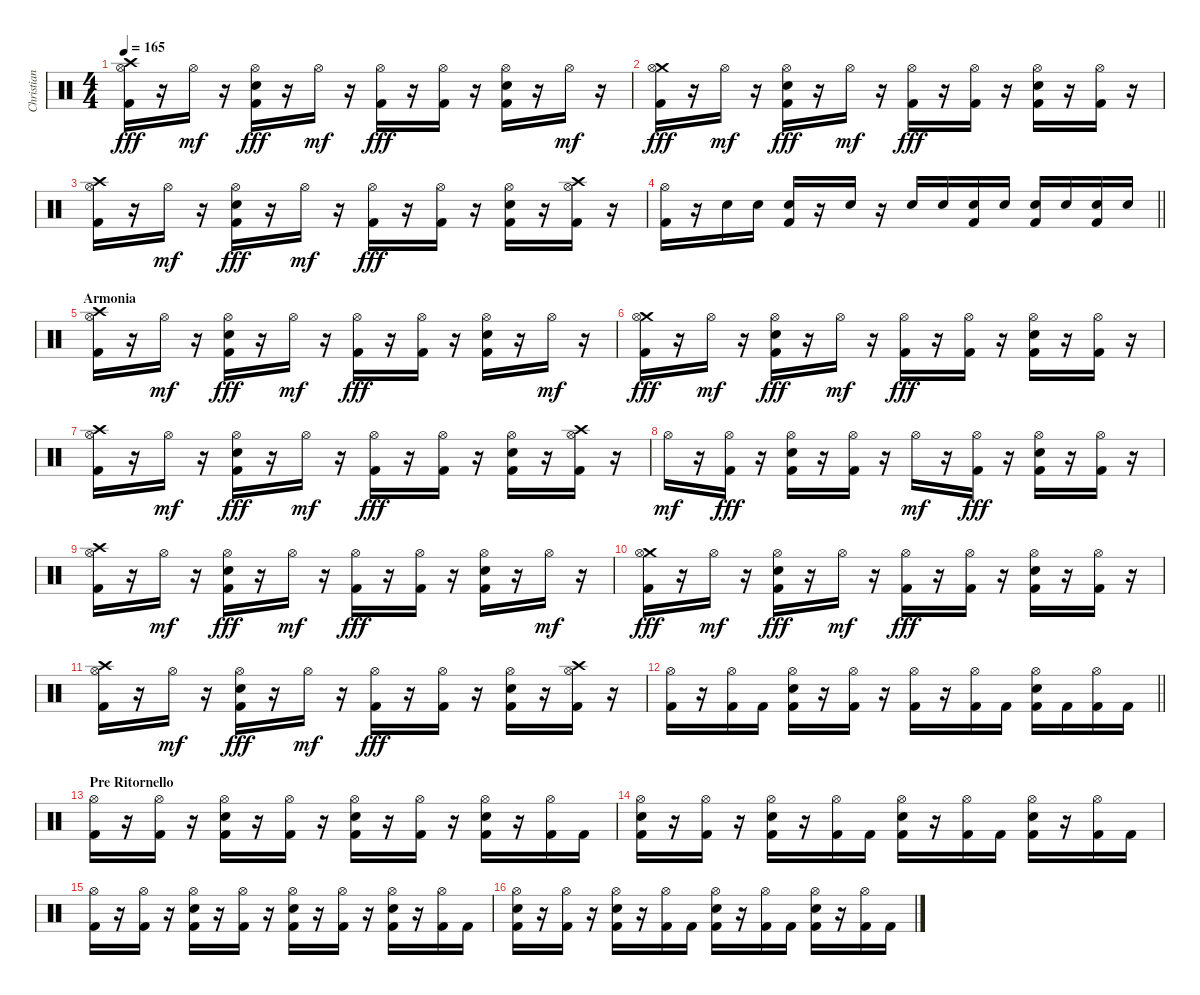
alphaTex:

\track ("Christian Coma Mora (CC)" "Christian ") {instrument percussion}
\staff {score}
\articulation defaults
\ts (4 4)
\tempo 165
\clef neutral
\ks c
("Crash high (hit)" "Hi-Hat (open)" "Kick (hit) 2").16{dy fff} r.16 "Hi-Hat (open)".16{dy mf} r.16 ("Hi-Hat (open)" "Snare (hit) 2" "Kick (hit) 2").16{dy fff} r.16 "Hi-Hat (open)".16{dy mf} r.16 ("Hi-Hat (open)" "Kick (hit) 2").16{dy fff} r.16 ("Hi-Hat (open)" "Kick (hit) 2").16 r.16 ("Hi-Hat (open)" "Snare (hit) 2" "Kick (hit) 2").16 r.16 "Hi-Hat (open)".16{dy mf} r.16 |
("Crash medium (hit)" "Hi-Hat (open)" "Kick (hit) 2").16{dy fff} r.16 "Hi-Hat (open)".16{dy mf} r.16 ("Hi-Hat (open)" "Snare (hit) 2" "Kick (hit) 2").16{dy fff} r.16 "Hi-Hat (open)".16{dy mf} r.16 ("Hi-Hat (open)" "Kick (hit) 2").16{dy fff} r.16 ("Hi-Hat (open)" "Kick (hit) 2").16 r.16 ("Hi-Hat (open)" "Snare (hit) 2" "Kick (hit) 2").16 r.16 ("Hi-Hat (open)" "Kick (hit) 2").16 r.16 |
("Crash high (hit)" "Hi-Hat (open)" "Kick (hit) 2").16 r.16 "Hi-Hat (open)".16{dy mf} r.16 ("Hi-Hat (open)" "Snare (hit) 2" "Kick (hit) 2").16{dy fff} r.16 "Hi-Hat (open)".16{dy mf} r.16 ("Hi-Hat (open)" "Kick (hit) 2").16{dy fff} r.16 ("Hi-Hat (open)" "Kick (hit) 2").16 r.16 ("Hi-Hat (open)" "Snare (hit) 2" "Kick (hit) 2").16 r.16 ("Crash high (hit)" "Hi-Hat (open)" "Kick (hit) 2").16 r.16 |
\barLineRight lightlight
("Hi-Hat (open)" "Kick (hit) 2").16 r.16 "Snare (hit) 2".16 "Snare (hit) 2".16 ("Snare (hit) 2" "Kick (hit) 2").16 r.16 "Snare (hit) 2".16 r.16 "Snare (hit) 2".16 "Snare (hit) 2".16 ("Snare (hit) 2" "Kick (hit) 2").16 "Snare (hit) 2".16 ("Snare (hit) 2" "Kick (hit) 2").16 "Snare (hit) 2".16 ("Snare (hit) 2" "Kick (hit) 2").16 "Snare (hit) 2".16 |
\section ("" "Armonia")
("Crash high (hit)" "Hi-Hat (open)" "Kick (hit) 2").16 r.16 "Hi-Hat (open)".16{dy mf} r.16 ("Hi-Hat (open)" "Snare (hit) 2" "Kick (hit) 2").16{dy fff} r.16 "Hi-Hat (open)".16{dy mf} r.16 ("Hi-Hat (open)" "Kick (hit) 2").16{dy fff} r.16 ("Hi-Hat (open)" "Kick (hit) 2").16 r.16 ("Hi-Hat (open)" "Snare (hit) 2" "Kick (hit) 2").16 r.16 "Hi-Hat (open)".16{dy mf} r.16 |
("Crash medium (hit)" "Hi-Hat (open)" "Kick (hit) 2").16{dy fff} r.16 "Hi-Hat (open)".16{dy mf} r.16 ("Hi-Hat (open)" "Snare (hit) 2" "Kick (hit) 2").16{dy fff} r.16 "Hi-Hat (open)".16{dy mf} r.16 ("Hi-Hat (open)" "Kick (hit) 2").16{dy fff} r.16 ("Hi-Hat (open)" "Kick (hit) 2").16 r.16 ("Hi-Hat (open)" "Snare (hit) 2" "Kick (hit) 2").16 r.16 ("Hi-Hat (open)" "Kick (hit) 2").16 r.16 |
("Crash high (hit)" "Hi-Hat (open)" "Kick (hit) 2").16 r.16 "Hi-Hat (open)".16{dy mf} r.16 ("Hi-Hat (open)" "Snare (hit) 2" "Kick (hit) 2").16{dy fff} r.16 "Hi-Hat (open)".16{dy mf} r.16 ("Hi-Hat (open)" "Kick (hit) 2").16{dy fff} r.16 ("Hi-Hat (open)" "Kick (hit) 2").16 r.16 ("Hi-Hat (open)" "Snare (hit) 2" "Kick (hit) 2").16 r.16 ("Crash high (hit)" "Hi-Hat (open)" "Kick (hit) 2").16 r.16 |
"Hi-Hat (open)".16{dy mf} r.16 ("Hi-Hat (open)" "Kick (hit) 2").16{dy fff} r.16 ("Hi-Hat (open)" "Snare (hit) 2" "Kick (hit) 2").16 r.16 ("Hi-Hat (open)" "Kick (hit) 2").16 r.16 "Hi-Hat (open)".16{dy mf} r.16 ("Hi-Hat (open)" "Kick (hit) 2").16{dy fff} r.16 ("Hi-Hat (open)" "Snare (hit) 2" "Kick (hit) 2").16 r.16 ("Hi-Hat (open)" "Kick (hit) 2").16 r.16 |
("Crash high (hit)" "Hi-Hat (open)" "Kick (hit) 2").16 r.16 "Hi-Hat (open)".16{dy mf} r.16 ("Hi-Hat (open)" "Snare (hit) 2" "Kick (hit) 2").16{dy fff} r.16 "Hi-Hat (open)".16{dy mf} r.16 ("Hi-Hat (open)" "Kick (hit) 2").16{dy fff} r.16 ("Hi-Hat (open)" "Kick (hit) 2").16 r.16 ("Hi-Hat (open)" "Snare (hit) 2" "Kick (hit) 2").16 r.16 "Hi-Hat (open)".16{dy mf} r.16 |
("Crash medium (hit)" "Hi-Hat (open)" "Kick (hit) 2").16{dy fff} r.16 "Hi-Hat (open)".16{dy mf} r.16 ("Hi-Hat (open)" "Snare (hit) 2" "Kick (hit) 2").16{dy fff} r.16 "Hi-Hat (open)".16{dy mf} r.16 ("Hi-Hat (open)" "Kick (hit) 2").16{dy fff} r.16 ("Hi-Hat (open)" "Kick (hit) 2").16 r.16 ("Hi-Hat (open)" "Snare (hit) 2" "Kick (hit) 2").16 r.16 ("Hi-Hat (open)" "Kick (hit) 2").16 r.16 |
("Crash high (hit)" "Hi-Hat (open)" "Kick (hit) 2").16 r.16 "Hi-Hat (open)".16{dy mf} r.16 ("Hi-Hat (open)" "Snare (hit) 2" "Kick (hit) 2").16{dy fff} r.16 "Hi-Hat (open)".16{dy mf} r.16 ("Hi-Hat (open)" "Kick (hit) 2").16{dy fff} r.16 ("Hi-Hat (open)" "Kick (hit) 2").16 r.16 ("Hi-Hat (open)" "Snare (hit) 2" "Kick (hit) 2").16 r.16 ("Crash high (hit)" "Hi-Hat (open)" "Kick (hit) 2").16 r.16 |
\barLineRight lightlight
("Hi-Hat (open)" "Kick (hit) 2").16 r.16 ("Hi-Hat (open)" "Kick (hit) 2").16 "Kick (hit) 2".16 ("Hi-Hat (open)" "Snare (hit) 2" "Kick (hit) 2").16 r.16 ("Hi-Hat (open)" "Kick (hit) 2").16 r.16 ("Hi-Hat (open)" "Kick (hit) 2").16 r.16 ("Hi-Hat (open)" "Kick (hit) 2").16 "Kick (hit) 2".16 ("Hi-Hat (open)" "Snare (hit) 2" "Kick (hit) 2").16 "Kick (hit) 2".16 ("Hi-Hat (open)" "Kick (hit) 2").16 "Kick (hit) 2".16 |
\section ("" "Pre Ritornello")
("Hi-Hat (open)" "Kick (hit) 2").16 r.16 ("Hi-Hat (open)" "Kick (hit) 2").16 r.16 ("Hi-Hat (open)" "Snare (hit) 2" "Kick (hit) 2").16 r.16 ("Hi-Hat (open)" "Kick (hit) 2").16 r.16 ("Hi-Hat (open)" "Snare (hit) 2" "Kick (hit) 2").16 r.16 ("Hi-Hat (open)" "Kick (hit) 2").16 r.16 ("Hi-Hat (open)" "Snare (hit) 2" "Kick (hit) 2").16 r.16 ("Hi-Hat (open)" "Kick (hit) 2").16 "Kick (hit) 2".16 |
("Hi-Hat (open)" "Snare (hit) 2" "Kick (hit) 2").16 r.16 ("Hi-Hat (open)" "Kick (hit) 2").16 r.16 ("Hi-Hat (open)" "Snare (hit) 2" "Kick (hit) 2").16 r.16 ("Hi-Hat (open)" "Kick (hit) 2").16 "Kick (hit) 2".16 ("Hi-Hat (open)" "Snare (hit) 2" "Kick (hit) 2").16 r.16 ("Hi-Hat (open)" "Kick (hit) 2").16 "Kick (hit) 2".16 ("Hi-Hat (open)" "Snare (hit) 2" "Kick (hit) 2").16 r.16 ("Hi-Hat (open)" "Kick (hit) 2").16 "Kick (hit) 2".16 |
("Hi-Hat (open)" "Kick (hit) 2").16 r.16 ("Hi-Hat (open)" "Kick (hit) 2").16 r.16 ("Hi-Hat (open)" "Snare (hit) 2" "Kick (hit) 2").16 r.16 ("Hi-Hat (open)" "Kick (hit) 2").16 r.16 ("Hi-Hat (open)" "Snare (hit) 2" "Kick (hit) 2").16 r.16 ("Hi-Hat (open)" "Kick (hit) 2").16 r.16 ("Hi-Hat (open)" "Snare (hit) 2" "Kick (hit) 2").16 r.16 ("Hi-Hat (open)" "Kick (hit) 2").16 "Kick (hit) 2".16 |
("Hi-Hat (open)" "Snare (hit) 2" "Kick (hit) 2").16 r.16 ("Hi-Hat (open)" "Kick (hit) 2").16 r.16 ("Hi-Hat (open)" "Snare (hit) 2" "Kick (hit) 2").16 r.16 ("Hi-Hat (open)" "Kick (hit) 2").16 "Kick (hit) 2".16 ("Hi-Hat (open)" "Snare (hit) 2" "Kick (hit) 2").16 r.16 ("Hi-Hat (open)" "Kick (hit) 2").16 "Kick (hit) 2".16 ("Hi-Hat (open)" "Snare (hit) 2" "Kick (hit) 2").16 r.16 ("Hi-Hat (open)" "Kick (hit) 2").16 "Kick (hit) 2".16
